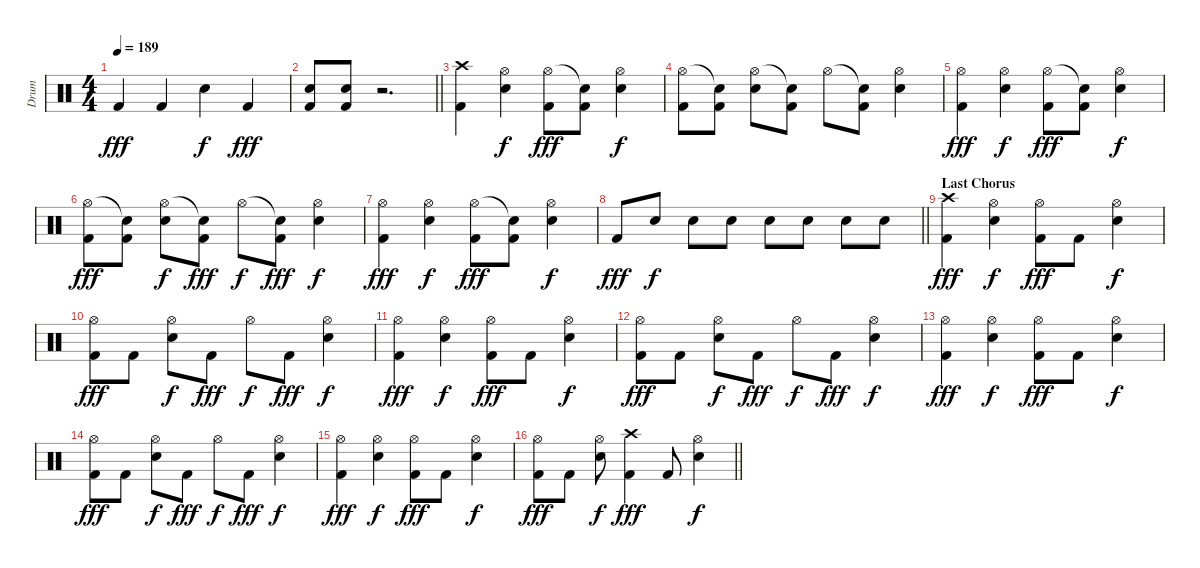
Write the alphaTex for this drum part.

\track ("Drum" "Drum") {instrument percussion}
\staff {score}
\articulation defaults
\ts (4 4)
\tempo 189
\clef neutral
\ks c "Kick (hit) 2".4{dy fff} "Kick (hit) 2".4 "Electric Snare (hit)".4{dy f} "Kick (hit) 2".4{dy fff}
|
\barLineRight lightlight
("Electric Snare (hit)" "Kick (hit) 2").8 ("Electric Snare (hit)" "Kick (hit) 2").8 r.2{d} |
\section ("" "")
("Crash high (hit)" "Kick (hit) 2").4 ("Hi-Hat (open)" "Electric Snare (hit)").4{dy f} ("Hi-Hat (open)" "Kick (hit) 2").8{dy fff} ("Snare (hit)"{t} "Kick (hit) 2").8 ("Hi-Hat (open)" "Electric Snare (hit)").4{dy f} |
("Hi-Hat (open)" "Kick (hit) 2").8 ("Snare (hit)"{t} "Kick (hit) 2").8 ("Hi-Hat (open)" "Electric Snare (hit)").8 ("Snare (hit)"{t} "Kick (hit) 2").8 "Hi-Hat (open)".8 ("Snare (hit)"{t} "Kick (hit) 2").8 ("Hi-Hat (open)" "Electric Snare (hit)").4 |
("Hi-Hat (open)" "Kick (hit) 2").4{dy fff} ("Hi-Hat (open)" "Electric Snare (hit)").4{dy f} ("Hi-Hat (open)" "Kick (hit) 2").8{dy fff} ("Snare (hit)"{t} "Kick (hit) 2").8 ("Hi-Hat (open)" "Electric Snare (hit)").4{dy f} |
("Hi-Hat (open)" "Kick (hit) 2").8{dy fff} ("Snare (hit)"{t} "Kick (hit) 2").8 ("Hi-Hat (open)" "Electric Snare (hit)").8{dy f} ("Snare (hit)"{t} "Kick (hit) 2").8{dy fff} "Hi-Hat (open)".8{dy f} ("Snare (hit)"{t} "Kick (hit) 2").8{dy fff} ("Hi-Hat (open)" "Electric Snare (hit)").4{dy f} |
("Hi-Hat (open)" "Kick (hit) 2").4{dy fff} ("Hi-Hat (open)" "Electric Snare (hit)").4{dy f} ("Hi-Hat (open)" "Kick (hit) 2").8{dy fff} ("Snare (hit)"{t} "Kick (hit) 2").8 ("Hi-Hat (open)" "Electric Snare (hit)").4{dy f} |
\barLineRight lightlight "Kick (hit) 2".8{dy fff} "Electric Snare (hit)".8{dy f} "Electric Snare (hit)".8 "Electric Snare (hit)".8 "Electric Snare (hit)".8 "Electric Snare (hit)".8 "Electric Snare (hit)".8 "Electric Snare (hit)".8
|
\section ("" "Last Chorus")
("Crash high (hit)" "Kick (hit) 2").4{dy fff} ("Hi-Hat (open)" "Electric Snare (hit)").4{dy f} ("Hi-Hat (open)" "Kick (hit) 2").8{dy fff} "Kick (hit) 2".8 ("Hi-Hat (open)" "Electric Snare (hit)").4{dy f} |
("Hi-Hat (open)" "Kick (hit) 2").8{dy fff} "Kick (hit) 2".8 ("Hi-Hat (open)" "Electric Snare (hit)").8{dy f} "Kick (hit) 2".8{dy fff} "Hi-Hat (open)".8{dy f} "Kick (hit) 2".8{dy fff} ("Hi-Hat (open)" "Electric Snare (hit)").4{dy f} |
("Hi-Hat (open)" "Kick (hit) 2").4{dy fff} ("Hi-Hat (open)" "Electric Snare (hit)").4{dy f} ("Hi-Hat (open)" "Kick (hit) 2").8{dy fff} "Kick (hit) 2".8 ("Hi-Hat (open)" "Electric Snare (hit)").4{dy f} |
("Hi-Hat (open)" "Kick (hit) 2").8{dy fff} "Kick (hit) 2".8 ("Hi-Hat (open)" "Electric Snare (hit)").8{dy f} "Kick (hit) 2".8{dy fff} "Hi-Hat (open)".8{dy f} "Kick (hit) 2".8{dy fff} ("Hi-Hat (open)" "Electric Snare (hit)").4{dy f} |
("Hi-Hat (open)" "Kick (hit) 2").4{dy fff} ("Hi-Hat (open)" "Electric Snare (hit)").4{dy f} ("Hi-Hat (open)" "Kick (hit) 2").8{dy fff} "Kick (hit) 2".8 ("Hi-Hat (open)" "Electric Snare (hit)").4{dy f} |
("Hi-Hat (open)" "Kick (hit) 2").8{dy fff} "Kick (hit) 2".8 ("Hi-Hat (open)" "Electric Snare (hit)").8{dy f} "Kick (hit) 2".8{dy fff} "Hi-Hat (open)".8{dy f} "Kick (hit) 2".8{dy fff} ("Hi-Hat (open)" "Electric Snare (hit)").4{dy f} |
("Hi-Hat (open)" "Kick (hit) 2").4{dy fff} ("Hi-Hat (open)" "Electric Snare (hit)").4{dy f} ("Hi-Hat (open)" "Kick (hit) 2").8{dy fff} "Kick (hit) 2".8 ("Hi-Hat (open)" "Electric Snare (hit)").4{dy f} |
\barLineRight lightlight
("Hi-Hat (open)" "Kick (hit) 2").8{dy fff} "Kick (hit) 2".8 ("Hi-Hat (open)" "Electric Snare (hit)").8{dy f} ("Crash high (hit)" "Kick (hit) 2").4{dy fff} "Kick (hit) 2".8 ("Hi-Hat (open)" "Electric Snare (hit)").4{dy f}
